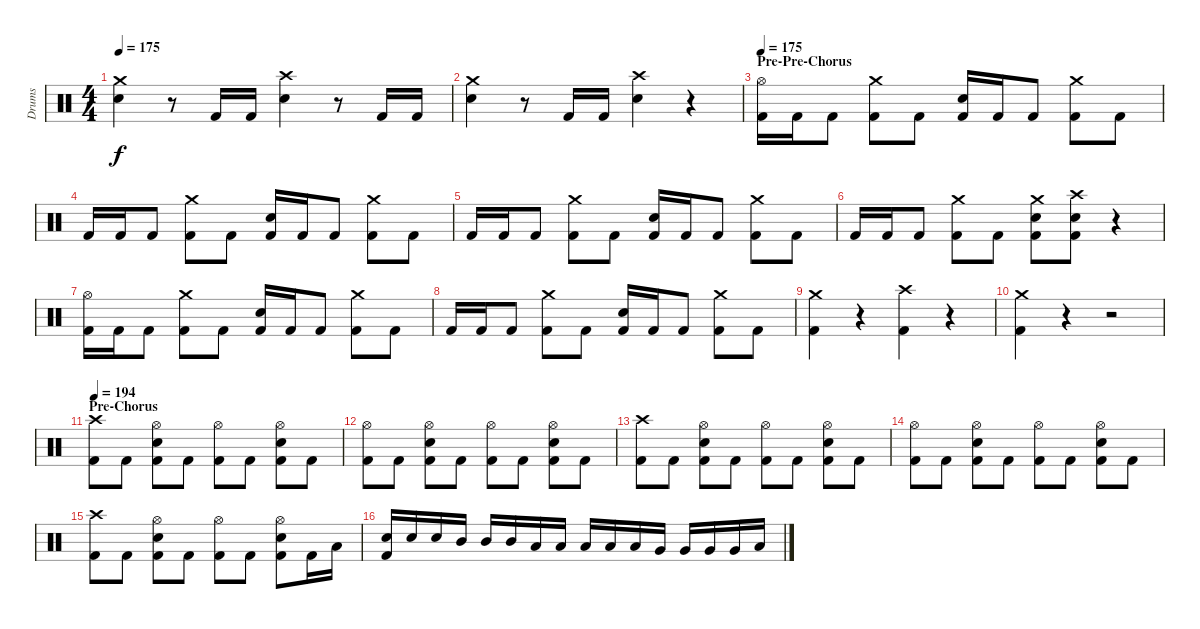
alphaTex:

\track ("Drums" "Drums") {instrument percussion}
\staff {score}
\articulation defaults
\ts (4 4)
\tempo 175
\clef neutral
\ks c
("Electric Snare (hit)" "Crash medium (hit)").4{dy f} r.8 "Kick (hit) 2".16 "Kick (hit) 2".16 ("Electric Snare (hit)" "Crash high (hit)").4 r.8 "Kick (hit) 2".16 "Kick (hit) 2".16 |
("Electric Snare (hit)" "Crash medium (hit)").4 r.8 "Kick (hit) 2".16 "Kick (hit) 2".16 ("Electric Snare (hit)" "Crash high (hit)").4 r.4 |
\section ("" "Pre-Pre-Chorus")
\tempo 175
("Kick (hit) 2" "Hi-Hat (open)").16 "Kick (hit) 2".16 "Kick (hit) 2".8 ("Kick (hit) 2" "Crash medium (hit)").8 "Kick (hit) 2".8 ("Kick (hit) 2" "Electric Snare (hit)").16 "Kick (hit) 2".16 "Kick (hit) 2".8 ("Kick (hit) 2" "Crash medium (hit)").8 "Kick (hit) 2".8 |
"Kick (hit) 2".16 "Kick (hit) 2".16 "Kick (hit) 2".8 ("Kick (hit) 2" "Crash medium (hit)").8 "Kick (hit) 2".8 ("Kick (hit) 2" "Electric Snare (hit)").16 "Kick (hit) 2".16 "Kick (hit) 2".8 ("Kick (hit) 2" "Crash medium (hit)").8 "Kick (hit) 2".8 |
"Kick (hit) 2".16 "Kick (hit) 2".16 "Kick (hit) 2".8 ("Kick (hit) 2" "Crash medium (hit)").8 "Kick (hit) 2".8 ("Kick (hit) 2" "Electric Snare (hit)").16 "Kick (hit) 2".16 "Kick (hit) 2".8 ("Kick (hit) 2" "Crash medium (hit)").8 "Kick (hit) 2".8 |
"Kick (hit) 2".16 "Kick (hit) 2".16 "Kick (hit) 2".8 ("Kick (hit) 2" "Crash medium (hit)").8 "Kick (hit) 2".8 ("Kick (hit) 2" "Electric Snare (hit)" "Crash medium (hit)").8 ("Kick (hit) 2" "Electric Snare (hit)" "Crash high (hit)").8 r.4 |
("Kick (hit) 2" "Hi-Hat (open)").16 "Kick (hit) 2".16 "Kick (hit) 2".8 ("Kick (hit) 2" "Crash medium (hit)").8 "Kick (hit) 2".8 ("Kick (hit) 2" "Electric Snare (hit)").16 "Kick (hit) 2".16 "Kick (hit) 2".8 ("Kick (hit) 2" "Crash medium (hit)").8 "Kick (hit) 2".8 |
"Kick (hit) 2".16 "Kick (hit) 2".16 "Kick (hit) 2".8 ("Kick (hit) 2" "Crash medium (hit)").8 "Kick (hit) 2".8 ("Kick (hit) 2" "Electric Snare (hit)").16 "Kick (hit) 2".16 "Kick (hit) 2".8 ("Kick (hit) 2" "Crash medium (hit)").8 "Kick (hit) 2".8 |
("Kick (hit) 2" "Crash medium (hit)").4 r.4 ("Kick (hit) 2" "Crash high (hit)").4 r.4 |
("Kick (hit) 2" "Crash medium (hit)").4 r.4 r.2 |
\section ("" "Pre-Chorus")
\tempo 194
("Kick (hit) 2" "Crash high (hit)").8 "Kick (hit) 2".8 ("Kick (hit) 2" "Electric Snare (hit)" "Hi-Hat (open)").8 "Kick (hit) 2".8 ("Kick (hit) 2" "Hi-Hat (open)").8 "Kick (hit) 2".8 ("Kick (hit) 2" "Electric Snare (hit)" "Hi-Hat (open)").8 "Kick (hit) 2".8 |
("Kick (hit) 2" "Hi-Hat (open)").8 "Kick (hit) 2".8 ("Kick (hit) 2" "Electric Snare (hit)" "Hi-Hat (open)").8 "Kick (hit) 2".8 ("Kick (hit) 2" "Hi-Hat (open)").8 "Kick (hit) 2".8 ("Kick (hit) 2" "Electric Snare (hit)" "Hi-Hat (open)").8 "Kick (hit) 2".8 |
("Kick (hit) 2" "Crash high (hit)").8 "Kick (hit) 2".8 ("Kick (hit) 2" "Electric Snare (hit)" "Hi-Hat (open)").8 "Kick (hit) 2".8 ("Kick (hit) 2" "Hi-Hat (open)").8 "Kick (hit) 2".8 ("Kick (hit) 2" "Electric Snare (hit)" "Hi-Hat (open)").8 "Kick (hit) 2".8 |
("Kick (hit) 2" "Hi-Hat (open)").8 "Kick (hit) 2".8 ("Kick (hit) 2" "Electric Snare (hit)" "Hi-Hat (open)").8 "Kick (hit) 2".8 ("Kick (hit) 2" "Hi-Hat (open)").8 "Kick (hit) 2".8 ("Kick (hit) 2" "Electric Snare (hit)" "Hi-Hat (open)").8 "Kick (hit) 2".8 |
("Kick (hit) 2" "Crash high (hit)").8 "Kick (hit) 2".8 ("Kick (hit) 2" "Electric Snare (hit)" "Hi-Hat (open)").8 "Kick (hit) 2".8 ("Kick (hit) 2" "Hi-Hat (open)").8 "Kick (hit) 2".8 ("Kick (hit) 2" "Electric Snare (hit)" "Hi-Hat (open)").8 "Kick (hit) 2".16 "Low Tom (hit)".16 |
("Kick (hit) 2" "Electric Snare (hit)").16 "Electric Snare (hit)".16 "Electric Snare (hit)".16 "Mid Tom (hit)".16 "Mid Tom (hit)".16 "Mid Tom (hit)".16 "Low Tom (hit)".16 "Low Tom (hit)".16 "Low Tom (hit)".16 "Low Tom (hit)".16 "Low Tom (hit)".16 "Very Low Tom (hit)".16 "Very Low Tom (hit)".16 "Very Low Tom (hit)".16 "Very Low Tom (hit)".16 "Low Floor Tom (hit)".16
